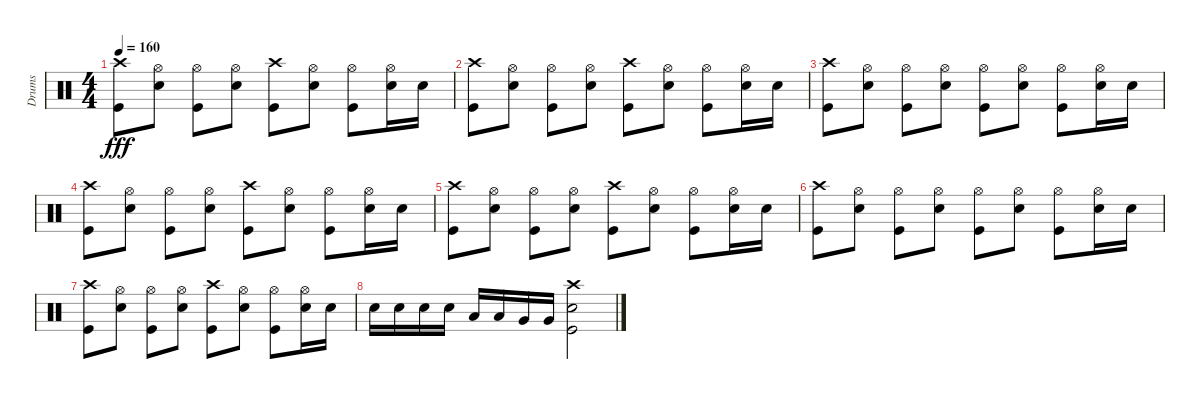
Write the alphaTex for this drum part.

\track ("Drums" "Drums") {instrument percussion}
\staff {score}
\articulation defaults
\ts (4 4)
\tempo 160
\clef neutral
\ks c
("Crash high (hit)" "Kick (hit)").8{dy fff} ("Hi-Hat (open)" "Electric Snare (hit)").8 ("Hi-Hat (open)" "Kick (hit)").8 ("Hi-Hat (open)" "Electric Snare (hit)").8 ("Crash high (hit)" "Kick (hit)").8 ("Hi-Hat (open)" "Electric Snare (hit)").8 ("Hi-Hat (open)" "Kick (hit)").8 ("Hi-Hat (open)" "Electric Snare (hit)").16 "Electric Snare (hit)".16 |
("Crash high (hit)" "Kick (hit)").8 ("Hi-Hat (open)" "Electric Snare (hit)").8 ("Hi-Hat (open)" "Kick (hit)").8 ("Hi-Hat (open)" "Electric Snare (hit)").8 ("Crash high (hit)" "Kick (hit)").8 ("Hi-Hat (open)" "Electric Snare (hit)").8 ("Hi-Hat (open)" "Kick (hit)").8 ("Hi-Hat (open)" "Electric Snare (hit)").16 "Electric Snare (hit)".16 |
("Crash high (hit)" "Kick (hit)").8 ("Hi-Hat (open)" "Electric Snare (hit)").8 ("Hi-Hat (open)" "Kick (hit)").8 ("Hi-Hat (open)" "Electric Snare (hit)").8 ("Hi-Hat (open)" "Kick (hit)").8 ("Hi-Hat (open)" "Electric Snare (hit)").8 ("Hi-Hat (open)" "Kick (hit)").8 ("Hi-Hat (open)" "Electric Snare (hit)").16 "Electric Snare (hit)".16 |
("Crash high (hit)" "Kick (hit)").8 ("Hi-Hat (open)" "Electric Snare (hit)").8 ("Hi-Hat (open)" "Kick (hit)").8 ("Hi-Hat (open)" "Electric Snare (hit)").8 ("Crash high (hit)" "Kick (hit)").8 ("Hi-Hat (open)" "Electric Snare (hit)").8 ("Hi-Hat (open)" "Kick (hit)").8 ("Hi-Hat (open)" "Electric Snare (hit)").16 "Electric Snare (hit)".16 |
("Crash high (hit)" "Kick (hit)").8 ("Hi-Hat (open)" "Electric Snare (hit)").8 ("Hi-Hat (open)" "Kick (hit)").8 ("Hi-Hat (open)" "Electric Snare (hit)").8 ("Crash high (hit)" "Kick (hit)").8 ("Hi-Hat (open)" "Electric Snare (hit)").8 ("Hi-Hat (open)" "Kick (hit)").8 ("Hi-Hat (open)" "Electric Snare (hit)").16 "Electric Snare (hit)".16 |
("Crash high (hit)" "Kick (hit)").8 ("Hi-Hat (open)" "Electric Snare (hit)").8 ("Hi-Hat (open)" "Kick (hit)").8 ("Hi-Hat (open)" "Electric Snare (hit)").8 ("Hi-Hat (open)" "Kick (hit)").8 ("Hi-Hat (open)" "Electric Snare (hit)").8 ("Hi-Hat (open)" "Kick (hit)").8 ("Hi-Hat (open)" "Electric Snare (hit)").16 "Electric Snare (hit)".16 |
("Crash high (hit)" "Kick (hit)").8 ("Hi-Hat (open)" "Electric Snare (hit)").8 ("Hi-Hat (open)" "Kick (hit)").8 ("Hi-Hat (open)" "Electric Snare (hit)").8 ("Crash high (hit)" "Kick (hit)").8 ("Hi-Hat (open)" "Electric Snare (hit)").8 ("Hi-Hat (open)" "Kick (hit)").8 ("Hi-Hat (open)" "Electric Snare (hit)").16 "Electric Snare (hit)".16 |
"Electric Snare (hit)".16 "Electric Snare (hit)".16 "Electric Snare (hit)".16 "Electric Snare (hit)".16 "Low Tom (hit)".16 "Low Tom (hit)".16 "Very Low Tom (hit)".16 "Very Low Tom (hit)".16 ("Crash high (hit)" "Kick (hit)" "Electric Snare (hit)").2
